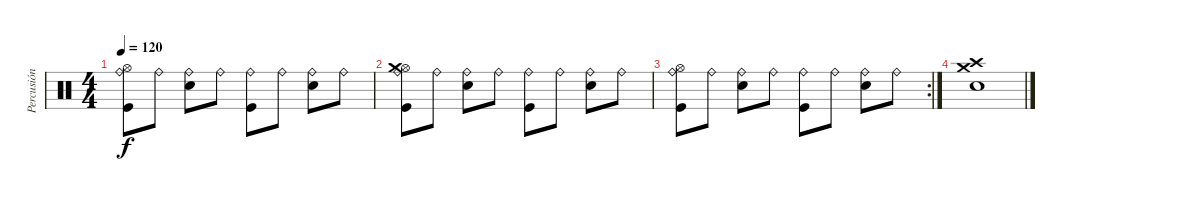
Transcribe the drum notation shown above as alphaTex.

\track ("Percusión" "Percusión") {instrument percussion}
\staff {score}
\articulation defaults
\ts (4 4)
\tempo 120
\clef neutral
\ks c
("Ride (bell)" "Hi-Hat (open)" "Kick (hit)").8{dy f} "Ride (bell)".8 ("Ride (bell)" "Snare (hit) 2").8 "Ride (bell)".8 ("Ride (bell)" "Kick (hit)").8 "Ride (bell)".8 ("Ride (bell)" "Snare (hit) 2").8 "Ride (bell)".8 |
("Ride (bell)" "Hi-Hat (open)" "Crash medium (hit)" "Kick (hit)").8 "Ride (bell)".8 ("Ride (bell)" "Snare (hit) 2").8 "Ride (bell)".8 ("Ride (bell)" "Kick (hit)").8 "Ride (bell)".8 ("Ride (bell)" "Snare (hit) 2").8 "Ride (bell)".8 |
\rc 2
("Ride (bell)" "Hi-Hat (open)" "Kick (hit)").8 "Ride (bell)".8 ("Ride (bell)" "Snare (hit) 2").8 "Ride (bell)".8 ("Ride (bell)" "Kick (hit)").8 "Ride (bell)".8 ("Ride (bell)" "Snare (hit) 2").8 "Ride (bell)".8 |
("Snare (hit) 2" "Crash high (hit)" "Crash medium (hit)").1
